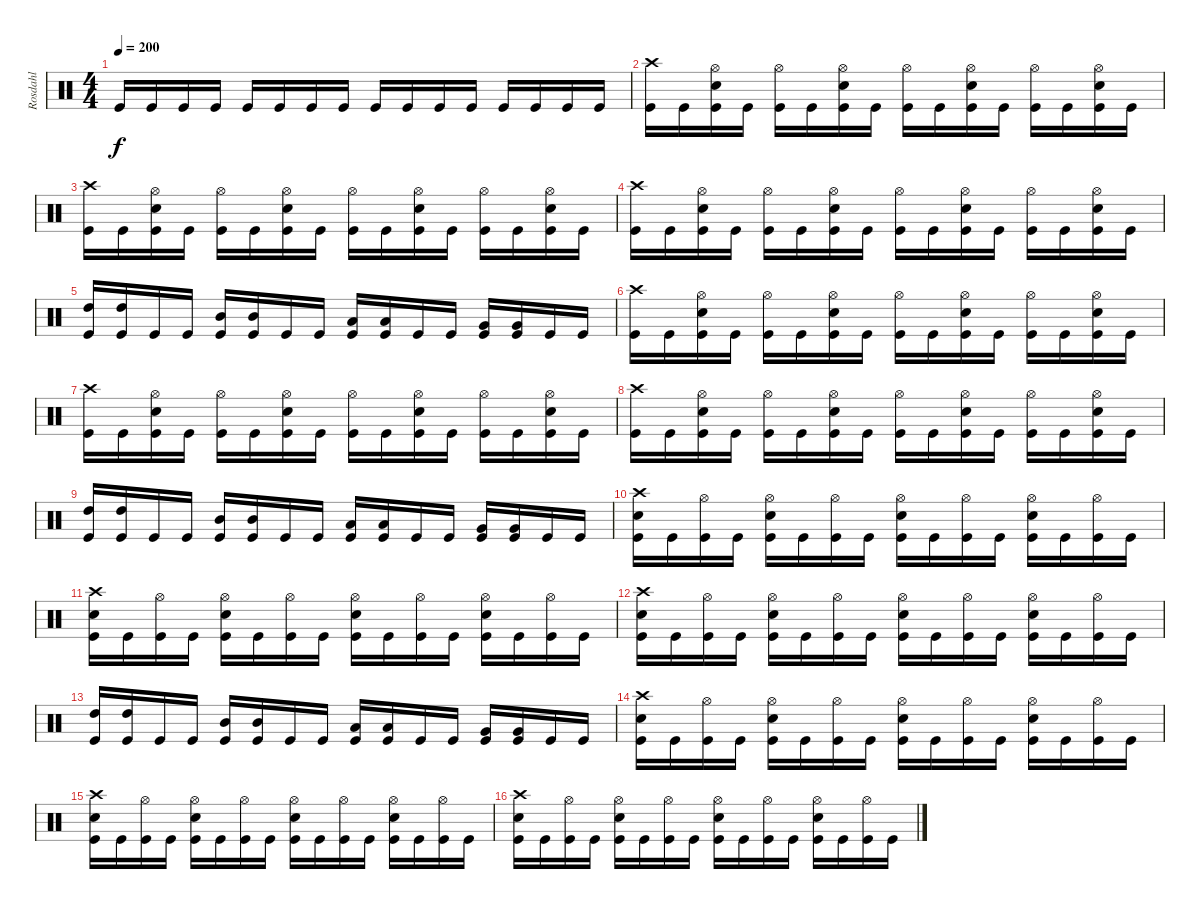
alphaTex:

\track ("Rosdahl" "Rosdahl") {instrument percussion}
\staff {score}
\articulation defaults
\ts (4 4)
\tempo 200
\clef neutral
\ks c "Kick (hit)".16{dy f} "Kick (hit)".16 "Kick (hit)".16 "Kick (hit)".16 "Kick (hit)".16 "Kick (hit)".16 "Kick (hit)".16 "Kick (hit)".16 "Kick (hit)".16 "Kick (hit)".16 "Kick (hit)".16 "Kick (hit)".16 "Kick (hit)".16 "Kick (hit)".16 "Kick (hit)".16 "Kick (hit)".16
|
("Crash high (hit)" "Kick (hit)").16{volume 16} "Kick (hit)".16 ("Hi-Hat (open)" "Electric Snare (hit)" "Kick (hit)").16 "Kick (hit)".16 ("Hi-Hat (open)" "Kick (hit)").16 "Kick (hit)".16 ("Hi-Hat (open)" "Electric Snare (hit)" "Kick (hit)").16 "Kick (hit)".16 ("Hi-Hat (open)" "Kick (hit)").16 "Kick (hit)".16 ("Hi-Hat (open)" "Electric Snare (hit)" "Kick (hit)").16 "Kick (hit)".16 ("Hi-Hat (open)" "Kick (hit)").16 "Kick (hit)".16 ("Hi-Hat (open)" "Electric Snare (hit)" "Kick (hit)").16 "Kick (hit)".16 |
("Crash high (hit)" "Kick (hit)").16 "Kick (hit)".16 ("Hi-Hat (open)" "Electric Snare (hit)" "Kick (hit)").16 "Kick (hit)".16 ("Hi-Hat (open)" "Kick (hit)").16 "Kick (hit)".16 ("Hi-Hat (open)" "Electric Snare (hit)" "Kick (hit)").16 "Kick (hit)".16 ("Hi-Hat (open)" "Kick (hit)").16 "Kick (hit)".16 ("Hi-Hat (open)" "Electric Snare (hit)" "Kick (hit)").16 "Kick (hit)".16 ("Hi-Hat (open)" "Kick (hit)").16 "Kick (hit)".16 ("Hi-Hat (open)" "Electric Snare (hit)" "Kick (hit)").16 "Kick (hit)".16 |
("Crash high (hit)" "Kick (hit)").16 "Kick (hit)".16 ("Hi-Hat (open)" "Electric Snare (hit)" "Kick (hit)").16 "Kick (hit)".16 ("Hi-Hat (open)" "Kick (hit)").16 "Kick (hit)".16 ("Hi-Hat (open)" "Electric Snare (hit)" "Kick (hit)").16 "Kick (hit)".16 ("Hi-Hat (open)" "Kick (hit)").16 "Kick (hit)".16 ("Hi-Hat (open)" "Electric Snare (hit)" "Kick (hit)").16 "Kick (hit)".16 ("Hi-Hat (open)" "Kick (hit)").16 "Kick (hit)".16 ("Hi-Hat (open)" "Electric Snare (hit)" "Kick (hit)").16 "Kick (hit)".16 |
("High Tom (hit)" "Kick (hit)").16 ("High Tom (hit)" "Kick (hit)").16 "Kick (hit)".16 "Kick (hit)".16 ("Mid Tom (hit)" "Kick (hit)").16 ("Mid Tom (hit)" "Kick (hit)").16 "Kick (hit)".16 "Kick (hit)".16 ("Low Tom (hit)" "Kick (hit)").16 ("Low Tom (hit)" "Kick (hit)").16 "Kick (hit)".16 "Kick (hit)".16 ("Very Low Tom (hit)" "Kick (hit)").16 ("Very Low Tom (hit)" "Kick (hit)").16 "Kick (hit)".16 "Kick (hit)".16 |
("Crash high (hit)" "Kick (hit)").16 "Kick (hit)".16 ("Hi-Hat (open)" "Electric Snare (hit)" "Kick (hit)").16 "Kick (hit)".16 ("Hi-Hat (open)" "Kick (hit)").16 "Kick (hit)".16 ("Hi-Hat (open)" "Electric Snare (hit)" "Kick (hit)").16 "Kick (hit)".16 ("Hi-Hat (open)" "Kick (hit)").16 "Kick (hit)".16 ("Hi-Hat (open)" "Electric Snare (hit)" "Kick (hit)").16 "Kick (hit)".16 ("Hi-Hat (open)" "Kick (hit)").16 "Kick (hit)".16 ("Hi-Hat (open)" "Electric Snare (hit)" "Kick (hit)").16 "Kick (hit)".16 |
("Crash high (hit)" "Kick (hit)").16 "Kick (hit)".16 ("Hi-Hat (open)" "Electric Snare (hit)" "Kick (hit)").16 "Kick (hit)".16 ("Hi-Hat (open)" "Kick (hit)").16 "Kick (hit)".16 ("Hi-Hat (open)" "Electric Snare (hit)" "Kick (hit)").16 "Kick (hit)".16 ("Hi-Hat (open)" "Kick (hit)").16 "Kick (hit)".16 ("Hi-Hat (open)" "Electric Snare (hit)" "Kick (hit)").16 "Kick (hit)".16 ("Hi-Hat (open)" "Kick (hit)").16 "Kick (hit)".16 ("Hi-Hat (open)" "Electric Snare (hit)" "Kick (hit)").16 "Kick (hit)".16 |
("Crash high (hit)" "Kick (hit)").16 "Kick (hit)".16 ("Hi-Hat (open)" "Electric Snare (hit)" "Kick (hit)").16 "Kick (hit)".16 ("Hi-Hat (open)" "Kick (hit)").16 "Kick (hit)".16 ("Hi-Hat (open)" "Electric Snare (hit)" "Kick (hit)").16 "Kick (hit)".16 ("Hi-Hat (open)" "Kick (hit)").16 "Kick (hit)".16 ("Hi-Hat (open)" "Electric Snare (hit)" "Kick (hit)").16 "Kick (hit)".16 ("Hi-Hat (open)" "Kick (hit)").16 "Kick (hit)".16 ("Hi-Hat (open)" "Electric Snare (hit)" "Kick (hit)").16 "Kick (hit)".16 |
("High Tom (hit)" "Kick (hit)").16 ("High Tom (hit)" "Kick (hit)").16 "Kick (hit)".16 "Kick (hit)".16 ("Mid Tom (hit)" "Kick (hit)").16 ("Mid Tom (hit)" "Kick (hit)").16 "Kick (hit)".16 "Kick (hit)".16 ("Low Tom (hit)" "Kick (hit)").16 ("Low Tom (hit)" "Kick (hit)").16 "Kick (hit)".16 "Kick (hit)".16 ("Very Low Tom (hit)" "Kick (hit)").16 ("Very Low Tom (hit)" "Kick (hit)").16 "Kick (hit)".16 "Kick (hit)".16 |
("Crash high (hit)" "Electric Snare (hit)" "Kick (hit)").16 "Kick (hit)".16 ("Hi-Hat (open)" "Kick (hit)").16 "Kick (hit)".16 ("Hi-Hat (open)" "Electric Snare (hit)" "Kick (hit)").16 "Kick (hit)".16 ("Hi-Hat (open)" "Kick (hit)").16 "Kick (hit)".16 ("Hi-Hat (open)" "Electric Snare (hit)" "Kick (hit)").16 "Kick (hit)".16 ("Hi-Hat (open)" "Kick (hit)").16 "Kick (hit)".16 ("Hi-Hat (open)" "Electric Snare (hit)" "Kick (hit)").16 "Kick (hit)".16 ("Hi-Hat (open)" "Kick (hit)").16 "Kick (hit)".16 |
("Crash high (hit)" "Electric Snare (hit)" "Kick (hit)").16 "Kick (hit)".16 ("Hi-Hat (open)" "Kick (hit)").16 "Kick (hit)".16 ("Hi-Hat (open)" "Electric Snare (hit)" "Kick (hit)").16 "Kick (hit)".16 ("Hi-Hat (open)" "Kick (hit)").16 "Kick (hit)".16 ("Hi-Hat (open)" "Electric Snare (hit)" "Kick (hit)").16 "Kick (hit)".16 ("Hi-Hat (open)" "Kick (hit)").16 "Kick (hit)".16 ("Hi-Hat (open)" "Electric Snare (hit)" "Kick (hit)").16 "Kick (hit)".16 ("Hi-Hat (open)" "Kick (hit)").16 "Kick (hit)".16 |
("Crash high (hit)" "Electric Snare (hit)" "Kick (hit)").16 "Kick (hit)".16 ("Hi-Hat (open)" "Kick (hit)").16 "Kick (hit)".16 ("Hi-Hat (open)" "Electric Snare (hit)" "Kick (hit)").16 "Kick (hit)".16 ("Hi-Hat (open)" "Kick (hit)").16 "Kick (hit)".16 ("Hi-Hat (open)" "Electric Snare (hit)" "Kick (hit)").16 "Kick (hit)".16 ("Hi-Hat (open)" "Kick (hit)").16 "Kick (hit)".16 ("Hi-Hat (open)" "Electric Snare (hit)" "Kick (hit)").16 "Kick (hit)".16 ("Hi-Hat (open)" "Kick (hit)").16 "Kick (hit)".16 |
("High Tom (hit)" "Kick (hit)").16 ("High Tom (hit)" "Kick (hit)").16 "Kick (hit)".16 "Kick (hit)".16 ("Mid Tom (hit)" "Kick (hit)").16 ("Mid Tom (hit)" "Kick (hit)").16 "Kick (hit)".16 "Kick (hit)".16 ("Low Tom (hit)" "Kick (hit)").16 ("Low Tom (hit)" "Kick (hit)").16 "Kick (hit)".16 "Kick (hit)".16 ("Very Low Tom (hit)" "Kick (hit)").16 ("Very Low Tom (hit)" "Kick (hit)").16 "Kick (hit)".16 "Kick (hit)".16 |
("Crash high (hit)" "Electric Snare (hit)" "Kick (hit)").16 "Kick (hit)".16 ("Hi-Hat (open)" "Kick (hit)").16 "Kick (hit)".16 ("Hi-Hat (open)" "Electric Snare (hit)" "Kick (hit)").16 "Kick (hit)".16 ("Hi-Hat (open)" "Kick (hit)").16 "Kick (hit)".16 ("Hi-Hat (open)" "Electric Snare (hit)" "Kick (hit)").16 "Kick (hit)".16 ("Hi-Hat (open)" "Kick (hit)").16 "Kick (hit)".16 ("Hi-Hat (open)" "Electric Snare (hit)" "Kick (hit)").16 "Kick (hit)".16 ("Hi-Hat (open)" "Kick (hit)").16 "Kick (hit)".16 |
("Crash high (hit)" "Electric Snare (hit)" "Kick (hit)").16 "Kick (hit)".16 ("Hi-Hat (open)" "Kick (hit)").16 "Kick (hit)".16 ("Hi-Hat (open)" "Electric Snare (hit)" "Kick (hit)").16 "Kick (hit)".16 ("Hi-Hat (open)" "Kick (hit)").16 "Kick (hit)".16 ("Hi-Hat (open)" "Electric Snare (hit)" "Kick (hit)").16 "Kick (hit)".16 ("Hi-Hat (open)" "Kick (hit)").16 "Kick (hit)".16 ("Hi-Hat (open)" "Electric Snare (hit)" "Kick (hit)").16 "Kick (hit)".16 ("Hi-Hat (open)" "Kick (hit)").16 "Kick (hit)".16 |
("Crash high (hit)" "Electric Snare (hit)" "Kick (hit)").16 "Kick (hit)".16 ("Hi-Hat (open)" "Kick (hit)").16 "Kick (hit)".16 ("Hi-Hat (open)" "Electric Snare (hit)" "Kick (hit)").16 "Kick (hit)".16 ("Hi-Hat (open)" "Kick (hit)").16 "Kick (hit)".16 ("Hi-Hat (open)" "Electric Snare (hit)" "Kick (hit)").16 "Kick (hit)".16 ("Hi-Hat (open)" "Kick (hit)").16 "Kick (hit)".16 ("Hi-Hat (open)" "Electric Snare (hit)" "Kick (hit)").16 "Kick (hit)".16 ("Hi-Hat (open)" "Kick (hit)").16 "Kick (hit)".16
